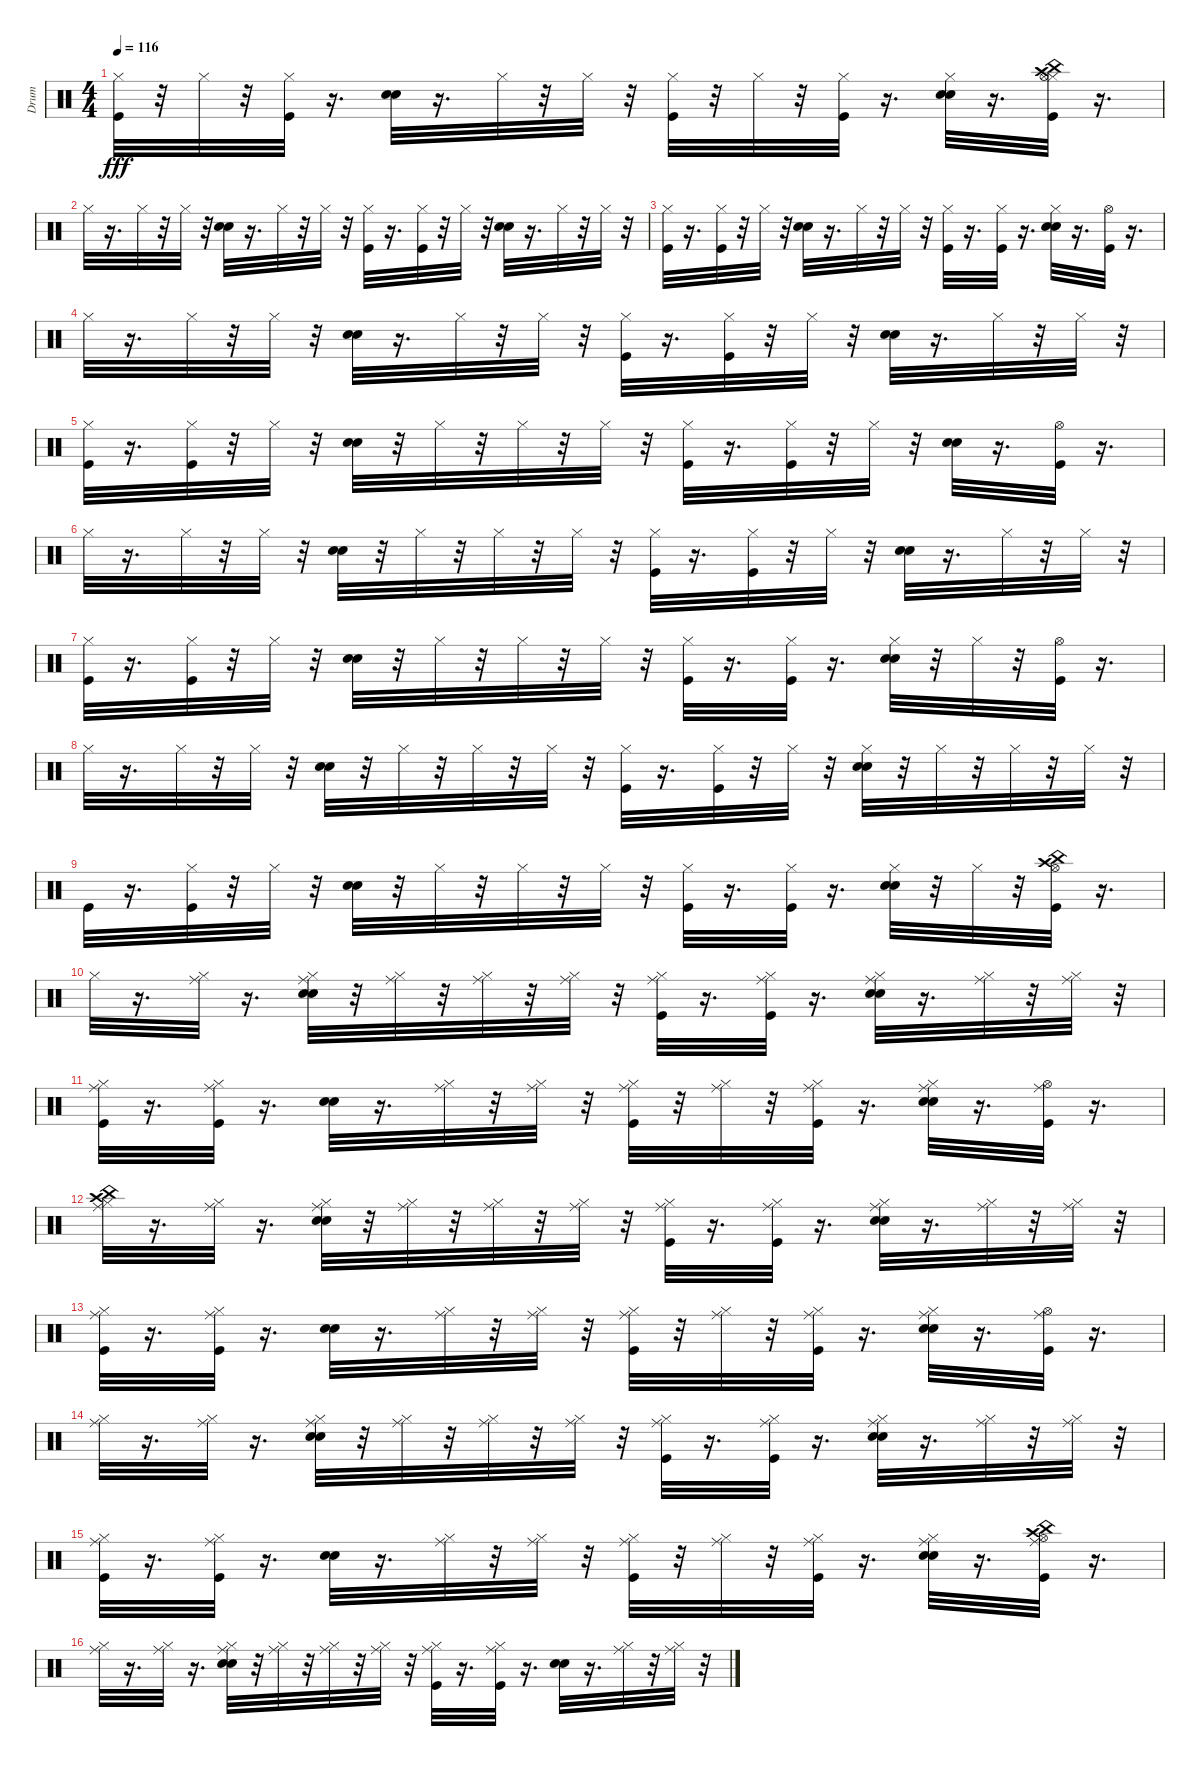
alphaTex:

\track ("Drum" "Drum") {instrument percussion}
\staff {score}
\articulation defaults
\ts (4 4)
\tempo 116
\clef neutral
\ks c
("Hi-Hat (closed)" "Kick (hit)").32{dy fff} r.32 "Hi-Hat (closed)".32 r.32 ("Hi-Hat (closed)" "Kick (hit)").32 r.16{d} ("Snare (hit) 2" "Electric Snare (hit)").32 r.16{d} "Hi-Hat (closed)".32 r.32 "Hi-Hat (closed)".32 r.32 ("Kick (hit)" "Hi-Hat (closed)").32 r.32 "Hi-Hat (closed)".32 r.32 ("Hi-Hat (closed)" "Kick (hit)").32 r.16{d} ("Snare (hit) 2" "Electric Snare (hit)" "Hi-Hat (closed)").32 r.16{d} ("Hi-Hat (closed)" "Crash high (hit)" "China (hit)" "Kick (hit)" "Hi-Hat (open)").32 r.16{d} |
"Hi-Hat (closed)".32 r.16{d} "Hi-Hat (closed)".32 r.32 "Hi-Hat (closed)".32 r.32 ("Snare (hit) 2" "Electric Snare (hit)").32 r.16{d} "Hi-Hat (closed)".32 r.32 "Hi-Hat (closed)".32 r.32 ("Hi-Hat (closed)" "Kick (hit)").32 r.16{d} ("Hi-Hat (closed)" "Kick (hit)").32 r.32 "Hi-Hat (closed)".32 r.32 ("Snare (hit) 2" "Electric Snare (hit)").32 r.16{d} "Hi-Hat (closed)".32 r.32 "Hi-Hat (closed)".32 r.32 |
("Hi-Hat (closed)" "Kick (hit)").32 r.16{d} ("Hi-Hat (closed)" "Kick (hit)").32 r.32 "Hi-Hat (closed)".32 r.32 ("Snare (hit) 2" "Electric Snare (hit)").32 r.16{d} "Hi-Hat (closed)".32 r.32 "Hi-Hat (closed)".32 r.32 ("Kick (hit)" "Hi-Hat (closed)").32 r.16{d} ("Kick (hit)" "Hi-Hat (closed)").32 r.16{d} ("Hi-Hat (closed)" "Snare (hit) 2" "Electric Snare (hit)").32 r.16{d} ("Hi-Hat (open)" "Kick (hit)").32 r.16{d} |
"Hi-Hat (closed)".32 r.16{d} "Hi-Hat (closed)".32 r.32 "Hi-Hat (closed)".32 r.32 ("Snare (hit) 2" "Electric Snare (hit)").32 r.16{d} "Hi-Hat (closed)".32 r.32 "Hi-Hat (closed)".32 r.32 ("Hi-Hat (closed)" "Kick (hit)").32 r.16{d} ("Hi-Hat (closed)" "Kick (hit)").32 r.32 "Hi-Hat (closed)".32 r.32 ("Snare (hit) 2" "Electric Snare (hit)").32 r.16{d} "Hi-Hat (closed)".32 r.32 "Hi-Hat (closed)".32 r.32 |
("Kick (hit)" "Hi-Hat (closed)").32 r.16{d} ("Hi-Hat (closed)" "Kick (hit)").32 r.32 "Hi-Hat (closed)".32 r.32 ("Snare (hit) 2" "Electric Snare (hit)").32 r.32 "Hi-Hat (closed)".32 r.32 "Hi-Hat (closed)".32 r.32 "Hi-Hat (closed)".32 r.32 ("Hi-Hat (closed)" "Kick (hit)").32 r.16{d} ("Hi-Hat (closed)" "Kick (hit)").32 r.32 "Hi-Hat (closed)".32 r.32 ("Snare (hit) 2" "Electric Snare (hit)").32 r.16{d} ("Hi-Hat (open)" "Kick (hit)").32 r.16{d} |
"Hi-Hat (closed)".32 r.16{d} "Hi-Hat (closed)".32 r.32 "Hi-Hat (closed)".32 r.32 ("Snare (hit) 2" "Electric Snare (hit)").32 r.32 "Hi-Hat (closed)".32 r.32 "Hi-Hat (closed)".32 r.32 "Hi-Hat (closed)".32 r.32 ("Hi-Hat (closed)" "Kick (hit)").32 r.16{d} ("Hi-Hat (closed)" "Kick (hit)").32 r.32 "Hi-Hat (closed)".32 r.32 ("Snare (hit) 2" "Electric Snare (hit)").32 r.16{d} "Hi-Hat (closed)".32 r.32 "Hi-Hat (closed)".32 r.32 |
("Hi-Hat (closed)" "Kick (hit)").32 r.16{d} ("Hi-Hat (closed)" "Kick (hit)").32 r.32 "Hi-Hat (closed)".32 r.32 ("Snare (hit) 2" "Electric Snare (hit)").32 r.32 "Hi-Hat (closed)".32 r.32 "Hi-Hat (closed)".32 r.32 "Hi-Hat (closed)".32 r.32 ("Hi-Hat (closed)" "Kick (hit)").32 r.16{d} ("Hi-Hat (closed)" "Kick (hit)").32 r.16{d} ("Snare (hit) 2" "Electric Snare (hit)" "Hi-Hat (closed)").32 r.32 "Hi-Hat (closed)".32 r.32 ("Kick (hit)" "Hi-Hat (open)").32 r.16{d} |
"Hi-Hat (closed)".32 r.16{d} "Hi-Hat (closed)".32 r.32 "Hi-Hat (closed)".32 r.32 ("Snare (hit) 2" "Electric Snare (hit)").32 r.32 "Hi-Hat (closed)".32 r.32 "Hi-Hat (closed)".32 r.32 "Hi-Hat (closed)".32 r.32 ("Hi-Hat (closed)" "Kick (hit)").32 r.16{d} ("Hi-Hat (closed)" "Kick (hit)").32 r.32 "Hi-Hat (closed)".32 r.32 ("Snare (hit) 2" "Electric Snare (hit)" "Hi-Hat (closed)").32 r.32 "Hi-Hat (closed)".32 r.32 "Hi-Hat (closed)".32 r.32 "Hi-Hat (closed)".32 r.32 |
"Kick (hit)".32 r.16{d} ("Hi-Hat (closed)" "Kick (hit)").32 r.32 "Hi-Hat (closed)".32 r.32 ("Snare (hit) 2" "Electric Snare (hit)").32 r.32 "Hi-Hat (closed)".32 r.32 "Hi-Hat (closed)".32 r.32 "Hi-Hat (closed)".32 r.32 ("Kick (hit)" "Hi-Hat (closed)").32 r.16{d} ("Hi-Hat (closed)" "Kick (hit)").32 r.16{d} ("Hi-Hat (closed)" "Snare (hit) 2" "Electric Snare (hit)").32 r.32 "Hi-Hat (closed)".32 r.32 ("Hi-Hat (open)" "Crash high (hit)" "China (hit)" "Kick (hit)").32 r.16{d} |
"Hi-Hat (closed)".32 r.16{d} ("Ride (middle)" "Hi-Hat (closed)").32 r.16{d} ("Snare (hit) 2" "Electric Snare (hit)" "Ride (middle)" "Hi-Hat (closed)").32 r.32 ("Ride (middle)" "Hi-Hat (closed)").32 r.32 ("Ride (middle)" "Hi-Hat (closed)").32 r.32 ("Ride (middle)" "Hi-Hat (closed)").32 r.32 ("Ride (middle)" "Hi-Hat (closed)" "Kick (hit)").32 r.16{d} ("Ride (middle)" "Hi-Hat (closed)" "Kick (hit)").32 r.16{d} ("Snare (hit) 2" "Electric Snare (hit)" "Ride (middle)" "Hi-Hat (closed)").32 r.16{d} ("Ride (middle)" "Hi-Hat (closed)").32 r.32 ("Ride (middle)" "Hi-Hat (closed)").32 r.32 |
("Ride (middle)" "Hi-Hat (closed)" "Kick (hit)").32 r.16{d} ("Ride (middle)" "Hi-Hat (closed)" "Kick (hit)").32 r.16{d} ("Snare (hit) 2" "Electric Snare (hit)").32 r.16{d} ("Ride (middle)" "Hi-Hat (closed)").32 r.32 ("Ride (middle)" "Hi-Hat (closed)").32 r.32 ("Ride (middle)" "Hi-Hat (closed)" "Kick (hit)").32 r.32 ("Ride (middle)" "Hi-Hat (closed)").32 r.32 ("Ride (middle)" "Hi-Hat (closed)" "Kick (hit)").32 r.16{d} ("Snare (hit) 2" "Electric Snare (hit)" "Ride (middle)" "Hi-Hat (closed)").32 r.16{d} ("Hi-Hat (open)" "Kick (hit)" "Ride (middle)").32 r.16{d} |
("Ride (middle)" "Hi-Hat (closed)" "Crash high (hit)" "China (hit)").32 r.16{d} ("Ride (middle)" "Hi-Hat (closed)").32 r.16{d} ("Snare (hit) 2" "Electric Snare (hit)" "Ride (middle)" "Hi-Hat (closed)").32 r.32 ("Ride (middle)" "Hi-Hat (closed)").32 r.32 ("Ride (middle)" "Hi-Hat (closed)").32 r.32 ("Ride (middle)" "Hi-Hat (closed)").32 r.32 ("Ride (middle)" "Hi-Hat (closed)" "Kick (hit)").32 r.16{d} ("Ride (middle)" "Hi-Hat (closed)" "Kick (hit)").32 r.16{d} ("Snare (hit) 2" "Electric Snare (hit)" "Ride (middle)" "Hi-Hat (closed)").32 r.16{d} ("Ride (middle)" "Hi-Hat (closed)").32 r.32 ("Ride (middle)" "Hi-Hat (closed)").32 r.32 |
("Ride (middle)" "Hi-Hat (closed)" "Kick (hit)").32 r.16{d} ("Ride (middle)" "Hi-Hat (closed)" "Kick (hit)").32 r.16{d} ("Snare (hit) 2" "Electric Snare (hit)").32 r.16{d} ("Ride (middle)" "Hi-Hat (closed)").32 r.32 ("Ride (middle)" "Hi-Hat (closed)").32 r.32 ("Ride (middle)" "Hi-Hat (closed)" "Kick (hit)").32 r.32 ("Ride (middle)" "Hi-Hat (closed)").32 r.32 ("Ride (middle)" "Hi-Hat (closed)" "Kick (hit)").32 r.16{d} ("Snare (hit) 2" "Electric Snare (hit)" "Ride (middle)" "Hi-Hat (closed)").32 r.16{d} ("Ride (middle)" "Hi-Hat (open)" "Kick (hit)").32 r.16{d} |
("Ride (middle)" "Hi-Hat (closed)").32 r.16{d} ("Ride (middle)" "Hi-Hat (closed)").32 r.16{d} ("Snare (hit) 2" "Electric Snare (hit)" "Ride (middle)" "Hi-Hat (closed)").32 r.32 ("Ride (middle)" "Hi-Hat (closed)").32 r.32 ("Ride (middle)" "Hi-Hat (closed)").32 r.32 ("Ride (middle)" "Hi-Hat (closed)").32 r.32 ("Ride (middle)" "Hi-Hat (closed)" "Kick (hit)").32 r.16{d} ("Ride (middle)" "Hi-Hat (closed)" "Kick (hit)").32 r.16{d} ("Snare (hit) 2" "Electric Snare (hit)" "Ride (middle)" "Hi-Hat (closed)").32 r.16{d} ("Ride (middle)" "Hi-Hat (closed)").32 r.32 ("Ride (middle)" "Hi-Hat (closed)").32 r.32 |
("Ride (middle)" "Hi-Hat (closed)" "Kick (hit)").32 r.16{d} ("Ride (middle)" "Hi-Hat (closed)" "Kick (hit)").32 r.16{d} ("Snare (hit) 2" "Electric Snare (hit)").32 r.16{d} ("Ride (middle)" "Hi-Hat (closed)").32 r.32 ("Ride (middle)" "Hi-Hat (closed)").32 r.32 ("Ride (middle)" "Hi-Hat (closed)" "Kick (hit)").32 r.32 ("Ride (middle)" "Hi-Hat (closed)").32 r.32 ("Ride (middle)" "Hi-Hat (closed)" "Kick (hit)").32 r.16{d} ("Snare (hit) 2" "Electric Snare (hit)" "Ride (middle)" "Hi-Hat (closed)").32 r.16{d} ("Crash high (hit)" "China (hit)" "Ride (middle)" "Hi-Hat (open)" "Kick (hit)").32 r.16{d} |
("Ride (middle)" "Hi-Hat (closed)").32 r.16{d} ("Ride (middle)" "Hi-Hat (closed)").32 r.16{d} ("Snare (hit) 2" "Electric Snare (hit)" "Ride (middle)" "Hi-Hat (closed)").32 r.32 ("Ride (middle)" "Hi-Hat (closed)").32 r.32 ("Ride (middle)" "Hi-Hat (closed)").32 r.32 ("Ride (middle)" "Hi-Hat (closed)").32 r.32 ("Kick (hit)" "Ride (middle)" "Hi-Hat (closed)").32 r.16{d} ("Kick (hit)" "Ride (middle)" "Hi-Hat (closed)").32 r.16{d} ("Snare (hit) 2" "Electric Snare (hit)").32 r.16{d} ("Ride (middle)" "Hi-Hat (closed)").32 r.32 ("Ride (middle)" "Hi-Hat (closed)").32 r.32
